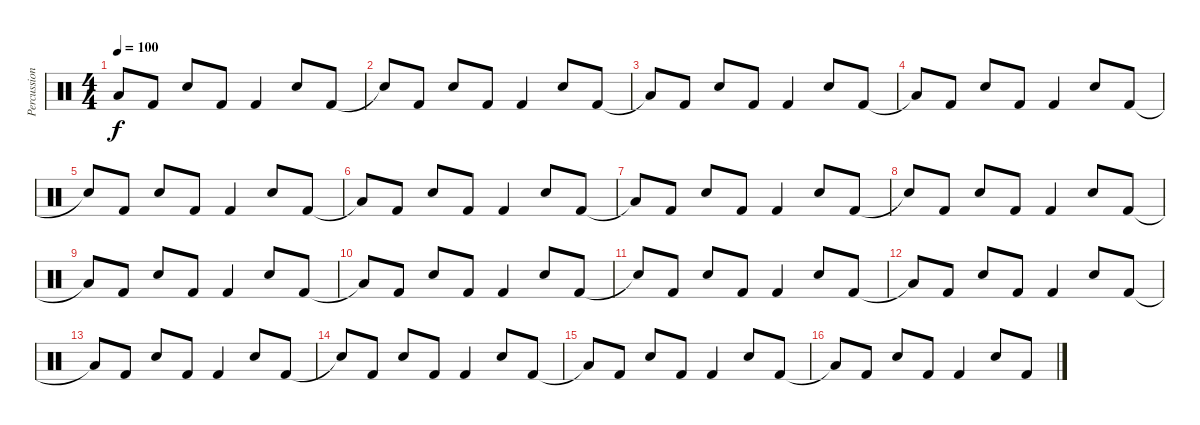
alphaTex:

\track ("Percussions" "Percussion") {instrument percussion}
\staff {score}
\articulation defaults
\ts (4 4)
\tempo 100
\clef neutral
\ks c "Low Tom (hit)"{t}.8{dy f} "Kick (hit) 2".8 "Snare (hit) 2".8 "Kick (hit) 2".8 "Kick (hit) 2".4 "Snare (hit) 2".8 "Kick (hit) 2".8
|
"Snare (hit)"{t}.8 "Kick (hit) 2".8 "Snare (hit) 2".8 "Kick (hit) 2".8 "Kick (hit) 2".4 "Snare (hit) 2".8 "Kick (hit) 2".8 |
"Low Tom (hit)"{t}.8 "Kick (hit) 2".8 "Snare (hit) 2".8 "Kick (hit) 2".8 "Kick (hit) 2".4 "Snare (hit) 2".8 "Kick (hit) 2".8 |
"Low Tom (hit)"{t}.8 "Kick (hit) 2".8 "Snare (hit) 2".8 "Kick (hit) 2".8 "Kick (hit) 2".4 "Snare (hit) 2".8 "Kick (hit) 2".8 |
"Snare (hit)"{t}.8 "Kick (hit) 2".8 "Snare (hit) 2".8 "Kick (hit) 2".8 "Kick (hit) 2".4 "Snare (hit) 2".8 "Kick (hit) 2".8 |
"Low Tom (hit)"{t}.8 "Kick (hit) 2".8 "Snare (hit) 2".8 "Kick (hit) 2".8 "Kick (hit) 2".4 "Snare (hit) 2".8 "Kick (hit) 2".8 |
"Low Tom (hit)"{t}.8 "Kick (hit) 2".8 "Snare (hit) 2".8 "Kick (hit) 2".8 "Kick (hit) 2".4 "Snare (hit) 2".8 "Kick (hit) 2".8 |
"Snare (hit)"{t}.8 "Kick (hit) 2".8 "Snare (hit) 2".8 "Kick (hit) 2".8 "Kick (hit) 2".4 "Snare (hit) 2".8 "Kick (hit) 2".8 |
"Low Tom (hit)"{t}.8 "Kick (hit) 2".8 "Snare (hit) 2".8 "Kick (hit) 2".8 "Kick (hit) 2".4 "Snare (hit) 2".8 "Kick (hit) 2".8 |
"Low Tom (hit)"{t}.8 "Kick (hit) 2".8 "Snare (hit) 2".8 "Kick (hit) 2".8 "Kick (hit) 2".4 "Snare (hit) 2".8 "Kick (hit) 2".8 |
"Snare (hit)"{t}.8 "Kick (hit) 2".8 "Snare (hit) 2".8 "Kick (hit) 2".8 "Kick (hit) 2".4 "Snare (hit) 2".8 "Kick (hit) 2".8 |
"Low Tom (hit)"{t}.8 "Kick (hit) 2".8 "Snare (hit) 2".8 "Kick (hit) 2".8 "Kick (hit) 2".4 "Snare (hit) 2".8 "Kick (hit) 2".8 |
"Low Tom (hit)"{t}.8 "Kick (hit) 2".8 "Snare (hit) 2".8 "Kick (hit) 2".8 "Kick (hit) 2".4 "Snare (hit) 2".8 "Kick (hit) 2".8 |
"Snare (hit)"{t}.8 "Kick (hit) 2".8 "Snare (hit) 2".8 "Kick (hit) 2".8 "Kick (hit) 2".4 "Snare (hit) 2".8 "Kick (hit) 2".8 |
"Low Tom (hit)"{t}.8 "Kick (hit) 2".8 "Snare (hit) 2".8 "Kick (hit) 2".8 "Kick (hit) 2".4 "Snare (hit) 2".8 "Kick (hit) 2".8 |
"Low Tom (hit)"{t}.8 "Kick (hit) 2".8 "Snare (hit) 2".8 "Kick (hit) 2".8 "Kick (hit) 2".4 "Snare (hit) 2".8 "Kick (hit) 2".8
